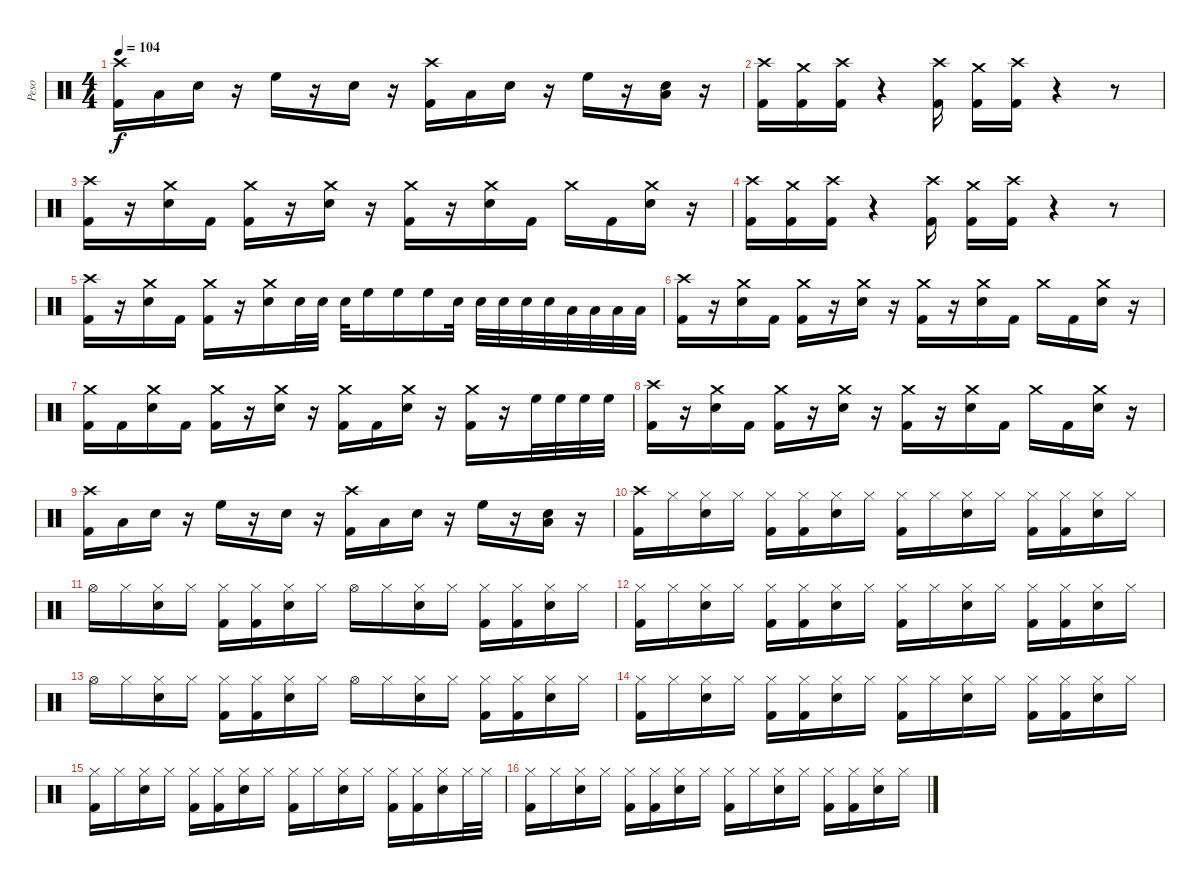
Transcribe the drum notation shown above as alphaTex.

\track ("Peso" "Peso") {instrument percussion}
\staff {score}
\articulation defaults
\ts (4 4)
\tempo 104
\clef neutral
\ks c
("Crash high (hit)" "Kick (hit) 2").16{dy f} "Low Floor Tom (hit)".16 "Snare (hit) 2".16 r.16 "High Floor Tom (hit)".16 r.16 "Snare (hit) 2".16 r.16 ("Crash high (hit)" "Kick (hit) 2").16 "Low Floor Tom (hit)".16 "Snare (hit) 2".16 r.16 "High Floor Tom (hit)".16 r.16 ("Low Floor Tom (hit)" "Snare (hit) 2").16 r.16 |
("Crash high (hit)" "Kick (hit) 2").16 ("Crash medium (hit)" "Kick (hit) 2").16 ("Crash high (hit)" "Kick (hit) 2").16 r.4 ("Crash high (hit)" "Kick (hit) 2").16 ("Crash medium (hit)" "Kick (hit) 2").16 ("Crash high (hit)" "Kick (hit) 2").16 r.4 r.8 |
("Crash high (hit)" "Kick (hit) 2").16 r.16 ("Crash medium (hit)" "Snare (hit) 2").16 "Kick (hit) 2".16 ("Crash medium (hit)" "Kick (hit) 2").16 r.16 ("Crash medium (hit)" "Snare (hit) 2").16 r.16 ("Crash medium (hit)" "Kick (hit) 2").16 r.16 ("Crash medium (hit)" "Snare (hit) 2").16 "Kick (hit) 2".16 "Crash medium (hit)".16 "Kick (hit) 2".16 ("Crash medium (hit)" "Snare (hit) 2").16 r.16 |
("Crash high (hit)" "Kick (hit) 2").16 ("Crash medium (hit)" "Kick (hit) 2").16 ("Crash high (hit)" "Kick (hit) 2").16 r.4 ("Crash high (hit)" "Kick (hit) 2").16 ("Crash medium (hit)" "Kick (hit) 2").16 ("Crash high (hit)" "Kick (hit) 2").16 r.4 r.8 |
("Crash high (hit)" "Kick (hit) 2").16 r.16 ("Crash medium (hit)" "Snare (hit) 2").16 "Kick (hit) 2".16 ("Crash medium (hit)" "Kick (hit) 2").16 r.16 ("Crash medium (hit)" "Snare (hit) 2").16 "Snare (hit) 2".32 "Snare (hit) 2".32 "Snare (hit) 2".32 "High Floor Tom (hit)".16 "High Floor Tom (hit)".16 "High Floor Tom (hit)".16 "Snare (hit) 2".32 "Snare (hit) 2".32 "Snare (hit) 2".32 "Snare (hit) 2".32 "Snare (hit) 2".32 "Low Floor Tom (hit)".32 "Low Floor Tom (hit)".32 "Low Floor Tom (hit)".32 "Low Floor Tom (hit)".32 |
("Crash high (hit)" "Kick (hit) 2").16 r.16 ("Crash medium (hit)" "Snare (hit) 2").16 "Kick (hit) 2".16 ("Crash medium (hit)" "Kick (hit) 2").16 r.16 ("Crash medium (hit)" "Snare (hit) 2").16 r.16 ("Crash medium (hit)" "Kick (hit) 2").16 r.16 ("Crash medium (hit)" "Snare (hit) 2").16 "Kick (hit) 2".16 "Crash medium (hit)".16 "Kick (hit) 2".16 ("Crash medium (hit)" "Snare (hit) 2").16 r.16 |
("Crash medium (hit)" "Kick (hit) 2").16 "Kick (hit) 2".16 ("Crash medium (hit)" "Snare (hit) 2").16 "Kick (hit) 2".16 ("Crash medium (hit)" "Kick (hit) 2").16 r.16 ("Crash medium (hit)" "Snare (hit) 2").16 r.16 ("Crash medium (hit)" "Kick (hit) 2").16 "Kick (hit) 2".16 ("Crash medium (hit)" "Snare (hit) 2").16 r.16 ("Crash medium (hit)" "Kick (hit) 2").16 r.16 "High Floor Tom (hit)".32 "High Floor Tom (hit)".32 "High Floor Tom (hit)".32 "High Floor Tom (hit)".32 |
("Crash high (hit)" "Kick (hit) 2").16 r.16 ("Crash medium (hit)" "Snare (hit) 2").16 "Kick (hit) 2".16 ("Crash medium (hit)" "Kick (hit) 2").16 r.16 ("Crash medium (hit)" "Snare (hit) 2").16 r.16 ("Crash medium (hit)" "Kick (hit) 2").16 r.16 ("Crash medium (hit)" "Snare (hit) 2").16 "Kick (hit) 2".16 "Crash medium (hit)".16 "Kick (hit) 2".16 ("Crash medium (hit)" "Snare (hit) 2").16 r.16 |
("Crash high (hit)" "Kick (hit) 2").16 "Low Floor Tom (hit)".16 "Snare (hit) 2".16 r.16 "High Floor Tom (hit)".16 r.16 "Snare (hit) 2".16 r.16 ("Crash high (hit)" "Kick (hit) 2").16 "Low Floor Tom (hit)".16 "Snare (hit) 2".16 r.16 "High Floor Tom (hit)".16 r.16 ("Low Floor Tom (hit)" "Snare (hit) 2").16 r.16 |
("Crash high (hit)" "Kick (hit) 2").16 "Hi-Hat (closed)".16 ("Hi-Hat (closed)" "Snare (hit) 2").16 "Hi-Hat (closed)".16 ("Hi-Hat (closed)" "Kick (hit) 2").16 ("Hi-Hat (closed)" "Kick (hit) 2").16 ("Hi-Hat (closed)" "Snare (hit) 2").16 "Hi-Hat (closed)".16 ("Hi-Hat (closed)" "Kick (hit) 2").16 "Hi-Hat (closed)".16 ("Hi-Hat (closed)" "Snare (hit) 2").16 "Hi-Hat (closed)".16 ("Hi-Hat (closed)" "Kick (hit) 2").16 ("Hi-Hat (closed)" "Kick (hit) 2").16 ("Hi-Hat (closed)" "Snare (hit) 2").16 "Hi-Hat (closed)".16 |
"Hi-Hat (open)".16 "Hi-Hat (closed)".16 ("Hi-Hat (closed)" "Snare (hit) 2").16 "Hi-Hat (closed)".16 ("Hi-Hat (closed)" "Kick (hit) 2").16 ("Hi-Hat (closed)" "Kick (hit) 2").16 ("Hi-Hat (closed)" "Snare (hit) 2").16 "Hi-Hat (closed)".16 "Hi-Hat (open)".16 "Hi-Hat (closed)".16 ("Hi-Hat (closed)" "Snare (hit) 2").16 "Hi-Hat (closed)".16 ("Hi-Hat (closed)" "Kick (hit) 2").16 ("Hi-Hat (closed)" "Kick (hit) 2").16 ("Hi-Hat (closed)" "Snare (hit) 2").16 "Hi-Hat (closed)".16 |
("Hi-Hat (closed)" "Kick (hit) 2").16 "Hi-Hat (closed)".16 ("Hi-Hat (closed)" "Snare (hit) 2").16 "Hi-Hat (closed)".16 ("Hi-Hat (closed)" "Kick (hit) 2").16 ("Hi-Hat (closed)" "Kick (hit) 2").16 ("Hi-Hat (closed)" "Snare (hit) 2").16 "Hi-Hat (closed)".16 ("Hi-Hat (closed)" "Kick (hit) 2").16 "Hi-Hat (closed)".16 ("Hi-Hat (closed)" "Snare (hit) 2").16 "Hi-Hat (closed)".16 ("Hi-Hat (closed)" "Kick (hit) 2").16 ("Hi-Hat (closed)" "Kick (hit) 2").16 ("Hi-Hat (closed)" "Snare (hit) 2").16 "Hi-Hat (closed)".16 |
"Hi-Hat (open)".16 "Hi-Hat (closed)".16 ("Hi-Hat (closed)" "Snare (hit) 2").16 "Hi-Hat (closed)".16 ("Hi-Hat (closed)" "Kick (hit) 2").16 ("Hi-Hat (closed)" "Kick (hit) 2").16 ("Hi-Hat (closed)" "Snare (hit) 2").16 "Hi-Hat (closed)".16 "Hi-Hat (open)".16 "Hi-Hat (closed)".16 ("Hi-Hat (closed)" "Snare (hit) 2").16 "Hi-Hat (closed)".16 ("Hi-Hat (closed)" "Kick (hit) 2").16 ("Hi-Hat (closed)" "Kick (hit) 2").16 ("Hi-Hat (closed)" "Snare (hit) 2").16 "Hi-Hat (closed)".16 |
("Hi-Hat (closed)" "Kick (hit) 2").16 "Hi-Hat (closed)".16 ("Hi-Hat (closed)" "Snare (hit) 2").16 "Hi-Hat (closed)".16 ("Hi-Hat (closed)" "Kick (hit) 2").16 ("Hi-Hat (closed)" "Kick (hit) 2").16 ("Hi-Hat (closed)" "Snare (hit) 2").16 "Hi-Hat (closed)".16 ("Hi-Hat (closed)" "Kick (hit) 2").16 "Hi-Hat (closed)".16 ("Hi-Hat (closed)" "Snare (hit) 2").16 "Hi-Hat (closed)".16 ("Hi-Hat (closed)" "Kick (hit) 2").16 ("Hi-Hat (closed)" "Kick (hit) 2").16 ("Hi-Hat (closed)" "Snare (hit) 2").16 "Hi-Hat (closed)".16 |
("Hi-Hat (closed)" "Kick (hit) 2").16 "Hi-Hat (closed)".16 ("Hi-Hat (closed)" "Snare (hit) 2").16 "Hi-Hat (closed)".16 ("Hi-Hat (closed)" "Kick (hit) 2").16 ("Hi-Hat (closed)" "Kick (hit) 2").16 ("Hi-Hat (closed)" "Snare (hit) 2").16 "Hi-Hat (closed)".16 ("Hi-Hat (closed)" "Kick (hit) 2").16 "Hi-Hat (closed)".16 ("Hi-Hat (closed)" "Snare (hit) 2").16 "Hi-Hat (closed)".16 ("Hi-Hat (closed)" "Kick (hit) 2").16 ("Hi-Hat (closed)" "Kick (hit) 2").16 ("Hi-Hat (closed)" "Snare (hit) 2").16 "Hi-Hat (closed)".32 "Hi-Hat (closed)".32 |
("Hi-Hat (closed)" "Kick (hit) 2").16 "Hi-Hat (closed)".16 ("Hi-Hat (closed)" "Snare (hit) 2").16 "Hi-Hat (closed)".16 ("Hi-Hat (closed)" "Kick (hit) 2").16 ("Hi-Hat (closed)" "Kick (hit) 2").16 ("Hi-Hat (closed)" "Snare (hit) 2").16 "Hi-Hat (closed)".16 ("Hi-Hat (closed)" "Kick (hit) 2").16 "Hi-Hat (closed)".16 ("Hi-Hat (closed)" "Snare (hit) 2").16 "Hi-Hat (closed)".16 ("Hi-Hat (closed)" "Kick (hit) 2").16 ("Hi-Hat (closed)" "Kick (hit) 2").16 ("Hi-Hat (closed)" "Snare (hit) 2").16 "Hi-Hat (closed)".16
